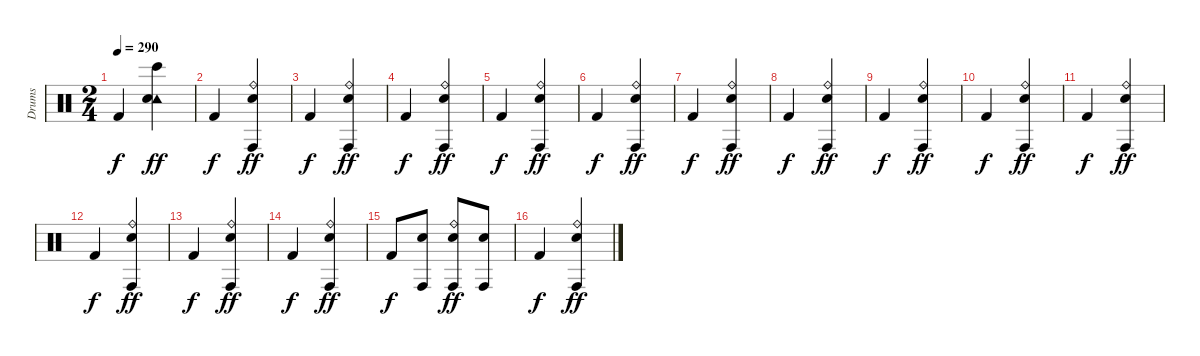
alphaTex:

\track ("Drums" "Drums") {instrument percussion}
\staff {score}
\articulation defaults
\ts (2 4)
\tempo 290
\clef neutral
\ks c "Kick (hit) 2".4{dy f}
("Tambourine (hit)" "Bongo High (hit)" "Electric Snare (hit)").4{dy ff} |
"Kick (hit) 2".4{dy f} ("Ride (bell)" "Conga high (hit)" "Electric Snare (hit)").4{dy ff} |
"Kick (hit) 2".4{dy f} ("Ride (bell)" "Conga high (hit)" "Electric Snare (hit)").4{dy ff} |
"Kick (hit) 2".4{dy f} ("Ride (bell)" "Conga high (hit)" "Electric Snare (hit)").4{dy ff} |
"Kick (hit) 2".4{dy f} ("Ride (bell)" "Conga high (hit)" "Electric Snare (hit)").4{dy ff} |
"Kick (hit) 2".4{dy f} ("Ride (bell)" "Conga high (hit)" "Electric Snare (hit)").4{dy ff} |
"Kick (hit) 2".4{dy f} ("Ride (bell)" "Conga high (hit)" "Electric Snare (hit)").4{dy ff} |
"Kick (hit) 2".4{dy f} ("Ride (bell)" "Conga high (hit)" "Electric Snare (hit)").4{dy ff} |
"Kick (hit) 2".4{dy f} ("Ride (bell)" "Conga high (hit)" "Electric Snare (hit)").4{dy ff} |
"Kick (hit) 2".4{dy f} ("Ride (bell)" "Conga high (hit)" "Electric Snare (hit)").4{dy ff} |
"Kick (hit) 2".4{dy f} ("Ride (bell)" "Conga high (hit)" "Electric Snare (hit)").4{dy ff} |
"Kick (hit) 2".4{dy f} ("Ride (bell)" "Conga high (hit)" "Electric Snare (hit)").4{dy ff} |
"Kick (hit) 2".4{dy f} ("Ride (bell)" "Conga high (hit)" "Electric Snare (hit)").4{dy ff} |
"Kick (hit) 2".4{dy f} ("Ride (bell)" "Conga high (hit)" "Electric Snare (hit)").4{dy ff} |
"Kick (hit) 2".8{dy f} ("Conga high (hit)" "Electric Snare (hit)").8 ("Ride (bell)" "Conga high (hit)" "Electric Snare (hit)").8{dy ff} ("Conga high (hit)" "Electric Snare (hit)").8 |
"Kick (hit) 2".4{dy f} ("Ride (bell)" "Conga high (hit)" "Electric Snare (hit)").4{dy ff}
